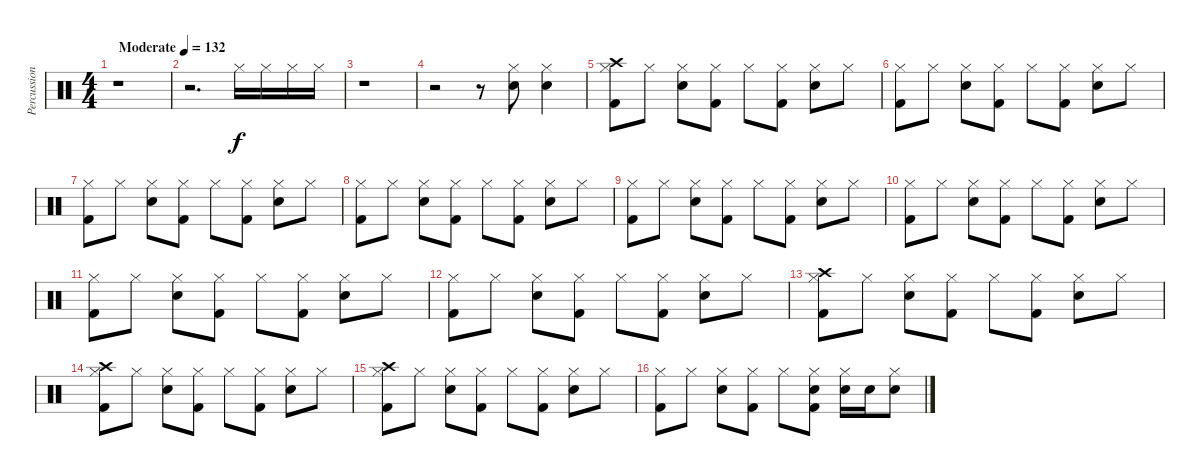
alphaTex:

\track ("Percussion" "Percussion") {instrument percussion}
\staff {score}
\articulation defaults
\ts (4 4)
\tempo (132 "Moderate")
\clef neutral
\ks c
r.1{dy f} |
r.2{d} "Hi-Hat (closed)".16 "Hi-Hat (closed)".16 "Hi-Hat (closed)".16 "Hi-Hat (closed)".16 |
r.1 |
r.2 r.8 ("Hi-Hat (closed)" "Snare (hit) 2").8 ("Hi-Hat (closed)" "Snare (hit) 2").4 |
("Crash high (hit)" "Hi-Hat (closed)" "Kick (hit) 2").8 "Hi-Hat (closed)".8 ("Hi-Hat (closed)" "Snare (hit) 2").8 ("Hi-Hat (closed)" "Kick (hit) 2").8 "Hi-Hat (closed)".8 ("Hi-Hat (closed)" "Kick (hit) 2").8 ("Hi-Hat (closed)" "Snare (hit) 2").8 "Hi-Hat (closed)".8 |
("Hi-Hat (closed)" "Kick (hit) 2").8 "Hi-Hat (closed)".8 ("Hi-Hat (closed)" "Snare (hit) 2").8 ("Hi-Hat (closed)" "Kick (hit) 2").8 "Hi-Hat (closed)".8 ("Hi-Hat (closed)" "Kick (hit) 2").8 ("Hi-Hat (closed)" "Snare (hit) 2").8 "Hi-Hat (closed)".8 |
("Hi-Hat (closed)" "Kick (hit) 2").8 "Hi-Hat (closed)".8 ("Hi-Hat (closed)" "Snare (hit) 2").8 ("Hi-Hat (closed)" "Kick (hit) 2").8 "Hi-Hat (closed)".8 ("Hi-Hat (closed)" "Kick (hit) 2").8 ("Hi-Hat (closed)" "Snare (hit) 2").8 "Hi-Hat (closed)".8 |
("Hi-Hat (closed)" "Kick (hit) 2").8 "Hi-Hat (closed)".8 ("Hi-Hat (closed)" "Snare (hit) 2").8 ("Hi-Hat (closed)" "Kick (hit) 2").8 "Hi-Hat (closed)".8 ("Hi-Hat (closed)" "Kick (hit) 2").8 ("Hi-Hat (closed)" "Snare (hit) 2").8 "Hi-Hat (closed)".8 |
("Hi-Hat (closed)" "Kick (hit) 2").8 "Hi-Hat (closed)".8 ("Hi-Hat (closed)" "Snare (hit) 2").8 ("Hi-Hat (closed)" "Kick (hit) 2").8 "Hi-Hat (closed)".8 ("Hi-Hat (closed)" "Kick (hit) 2").8 ("Hi-Hat (closed)" "Snare (hit) 2").8 "Hi-Hat (closed)".8 |
("Hi-Hat (closed)" "Kick (hit) 2").8 "Hi-Hat (closed)".8 ("Hi-Hat (closed)" "Snare (hit) 2").8 ("Hi-Hat (closed)" "Kick (hit) 2").8 "Hi-Hat (closed)".8 ("Hi-Hat (closed)" "Kick (hit) 2").8 ("Hi-Hat (closed)" "Snare (hit) 2").8 "Hi-Hat (closed)".8 |
("Hi-Hat (closed)" "Kick (hit) 2").8 "Hi-Hat (closed)".8 ("Hi-Hat (closed)" "Snare (hit) 2").8 ("Hi-Hat (closed)" "Kick (hit) 2").8 "Hi-Hat (closed)".8 ("Hi-Hat (closed)" "Kick (hit) 2").8 ("Hi-Hat (closed)" "Snare (hit) 2").8 "Hi-Hat (closed)".8 |
("Hi-Hat (closed)" "Kick (hit) 2").8 "Hi-Hat (closed)".8 ("Hi-Hat (closed)" "Snare (hit) 2").8 ("Hi-Hat (closed)" "Kick (hit) 2").8 "Hi-Hat (closed)".8 ("Hi-Hat (closed)" "Kick (hit) 2").8 ("Hi-Hat (closed)" "Snare (hit) 2").8 "Hi-Hat (closed)".8 |
("Crash high (hit)" "Hi-Hat (closed)" "Kick (hit) 2").8 "Hi-Hat (closed)".8 ("Hi-Hat (closed)" "Snare (hit) 2").8 ("Hi-Hat (closed)" "Kick (hit) 2").8 "Hi-Hat (closed)".8 ("Hi-Hat (closed)" "Kick (hit) 2").8 ("Hi-Hat (closed)" "Snare (hit) 2").8 "Hi-Hat (closed)".8 |
("Crash high (hit)" "Hi-Hat (closed)" "Kick (hit) 2").8 "Hi-Hat (closed)".8 ("Hi-Hat (closed)" "Snare (hit) 2").8 ("Hi-Hat (closed)" "Kick (hit) 2").8 "Hi-Hat (closed)".8 ("Hi-Hat (closed)" "Kick (hit) 2").8 ("Hi-Hat (closed)" "Snare (hit) 2").8 "Hi-Hat (closed)".8 |
("Crash high (hit)" "Hi-Hat (closed)" "Kick (hit) 2").8 "Hi-Hat (closed)".8 ("Hi-Hat (closed)" "Snare (hit) 2").8 ("Hi-Hat (closed)" "Kick (hit) 2").8 "Hi-Hat (closed)".8 ("Hi-Hat (closed)" "Kick (hit) 2").8 ("Hi-Hat (closed)" "Snare (hit) 2").8 "Hi-Hat (closed)".8 |
("Hi-Hat (closed)" "Kick (hit) 2").8 "Hi-Hat (closed)".8 ("Hi-Hat (closed)" "Snare (hit) 2").8 ("Hi-Hat (closed)" "Kick (hit) 2").8 "Hi-Hat (closed)".8 ("Hi-Hat (closed)" "Snare (hit) 2" "Kick (hit) 2").8 ("Hi-Hat (closed)" "Snare (hit) 2").16 "Snare (hit) 2".16 ("Hi-Hat (closed)" "Snare (hit) 2").8
